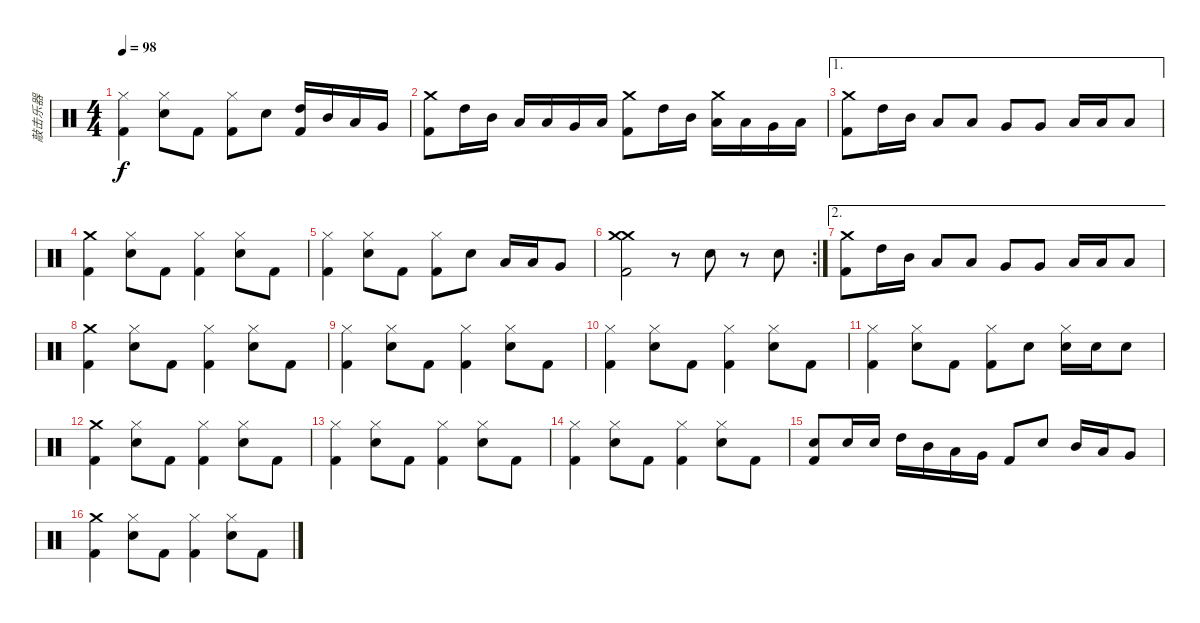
\track ("敲击乐器" "敲击乐器") {instrument percussion}
\staff {score}
\articulation defaults
\ts (4 4)
\tempo 98
\clef neutral
\ks c
("Hi-Hat (closed)" "Kick (hit) 2").4{dy f} ("Hi-Hat (closed)" "Snare (hit) 2").8 "Kick (hit) 2".8 ("Hi-Hat (closed)" "Kick (hit) 2").8 "Snare (hit) 2".8 ("High Tom (hit)" "Kick (hit) 2").16 "Mid Tom (hit)".16 "Low Tom (hit)".16 "Very Low Tom (hit)".16 |
("Crash medium (hit)" "Kick (hit) 2").8 "High Tom (hit)".16 "Mid Tom (hit)".16 "Low Tom (hit)".16 "Low Tom (hit)".16 "Very Low Tom (hit)".16 "Low Floor Tom (hit)".16 ("Crash medium (hit)" "Kick (hit) 2").8 "High Tom (hit)".16 "Mid Tom (hit)".16 ("Crash medium (hit)" "Low Tom (hit)").16 "Low Tom (hit)".16 "Very Low Tom (hit)".16 "Low Floor Tom (hit)".16 |
\ae 1
("Crash medium (hit)" "Kick (hit) 2").8 "High Tom (hit)".16 "Mid Tom (hit)".16 "Low Tom (hit)".8 "Low Tom (hit)".8 "Very Low Tom (hit)".8 "Very Low Tom (hit)".8 "Low Floor Tom (hit)".16 "Low Floor Tom (hit)".16 "Low Floor Tom (hit)".8 |
("Crash medium (hit)" "Kick (hit) 2").4 ("Hi-Hat (closed)" "Snare (hit) 2").8 "Kick (hit) 2".8 ("Hi-Hat (closed)" "Kick (hit) 2").4 ("Hi-Hat (closed)" "Snare (hit) 2").8 "Kick (hit) 2".8 |
("Hi-Hat (closed)" "Kick (hit) 2").4 ("Hi-Hat (closed)" "Snare (hit) 2").8 "Kick (hit) 2".8 ("Hi-Hat (closed)" "Kick (hit) 2").8 "Snare (hit) 2".8 "Low Tom (hit)".16 "Low Tom (hit)".16 "Very Low Tom (hit)".8 |
\rc 2
("Crash medium (hit)" "Crash medium (hit)" "Kick (hit) 2").2 r.8 "Snare (hit) 2".8 r.8 "Snare (hit) 2".8 |
\ae 2
("Crash medium (hit)" "Kick (hit) 2").8 "High Tom (hit)".16 "Mid Tom (hit)".16 "Low Tom (hit)".8 "Low Tom (hit)".8 "Very Low Tom (hit)".8 "Very Low Tom (hit)".8 "Low Floor Tom (hit)".16 "Low Floor Tom (hit)".16 "Low Floor Tom (hit)".8 |
("Crash medium (hit)" "Kick (hit) 2").4 ("Hi-Hat (closed)" "Snare (hit) 2").8 "Kick (hit) 2".8 ("Hi-Hat (closed)" "Kick (hit) 2").4 ("Hi-Hat (closed)" "Snare (hit) 2").8 "Kick (hit) 2".8 |
("Hi-Hat (closed)" "Kick (hit) 2").4 ("Hi-Hat (closed)" "Snare (hit) 2").8 "Kick (hit) 2".8 ("Hi-Hat (closed)" "Kick (hit) 2").4 ("Hi-Hat (closed)" "Snare (hit) 2").8 "Kick (hit) 2".8 |
("Hi-Hat (closed)" "Kick (hit) 2").4 ("Hi-Hat (closed)" "Snare (hit) 2").8 "Kick (hit) 2".8 ("Hi-Hat (closed)" "Kick (hit) 2").4 ("Hi-Hat (closed)" "Snare (hit) 2").8 "Kick (hit) 2".8 |
("Hi-Hat (closed)" "Kick (hit) 2").4 ("Hi-Hat (closed)" "Snare (hit) 2").8 "Kick (hit) 2".8 ("Hi-Hat (closed)" "Kick (hit) 2").8 "Snare (hit) 2".8 ("Hi-Hat (closed)" "Snare (hit) 2").16 "Snare (hit) 2".16 "Snare (hit) 2".8 |
("Crash medium (hit)" "Kick (hit) 2").4 ("Hi-Hat (closed)" "Snare (hit) 2").8 "Kick (hit) 2".8 ("Hi-Hat (closed)" "Kick (hit) 2").4 ("Hi-Hat (closed)" "Snare (hit) 2").8 "Kick (hit) 2".8 |
("Hi-Hat (closed)" "Kick (hit) 2").4 ("Hi-Hat (closed)" "Snare (hit) 2").8 "Kick (hit) 2".8 ("Hi-Hat (closed)" "Kick (hit) 2").4 ("Hi-Hat (closed)" "Snare (hit) 2").8 "Kick (hit) 2".8 |
("Hi-Hat (closed)" "Kick (hit) 2").4 ("Hi-Hat (closed)" "Snare (hit) 2").8 "Kick (hit) 2".8 ("Hi-Hat (closed)" "Kick (hit) 2").4 ("Hi-Hat (closed)" "Snare (hit) 2").8 "Kick (hit) 2".8 |
("Snare (hit) 2" "Kick (hit) 2").8 "Snare (hit) 2".16 "Snare (hit) 2".16 "High Tom (hit)".16 "Mid Tom (hit)".16 "Low Tom (hit)".16 "Very Low Tom (hit)".16 "Kick (hit) 2".8 "Snare (hit) 2".8 "Mid Tom (hit)".16 "Low Tom (hit)".16 "Very Low Tom (hit)".8 |
("Crash medium (hit)" "Kick (hit) 2").4 ("Hi-Hat (closed)" "Snare (hit) 2").8 "Kick (hit) 2".8 ("Hi-Hat (closed)" "Kick (hit) 2").4 ("Hi-Hat (closed)" "Snare (hit) 2").8 "Kick (hit) 2".8
